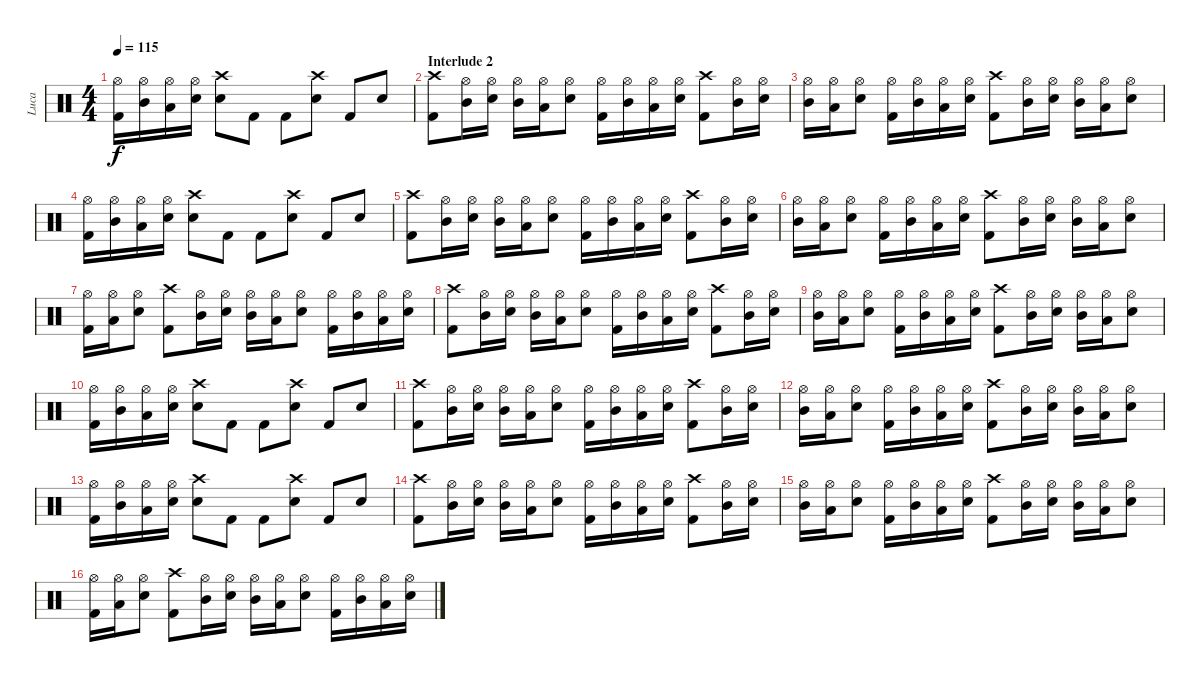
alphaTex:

\track ("Luca" "Luca") {instrument percussion}
\staff {score}
\articulation defaults
\ts (4 4)
\tempo 115
\clef neutral
\ks c
("Hi-Hat (open)" "Kick (hit) 2").16{dy f} ("Hi-Hat (open)" "Mid Tom (hit)").16 ("Hi-Hat (open)" "Low Floor Tom (hit)").16 ("Hi-Hat (open)" "Snare (hit) 2").16 ("Crash high (hit)" "Snare (hit) 2").8 "Kick (hit) 2".8 "Kick (hit) 2".8 ("Crash high (hit)" "Snare (hit) 2").8 "Kick (hit) 2".8 "Snare (hit) 2".8 |
\section ("" "Interlude 2")
("Crash high (hit)" "Kick (hit) 2").8 ("Hi-Hat (open)" "Mid Tom (hit)").16 ("Hi-Hat (open)" "Snare (hit) 2").16 ("Hi-Hat (open)" "Mid Tom (hit)").16 ("Hi-Hat (open)" "Low Floor Tom (hit)").16 ("Hi-Hat (open)" "Snare (hit) 2").8 ("Hi-Hat (open)" "Kick (hit) 2").16 ("Hi-Hat (open)" "Mid Tom (hit)").16 ("Hi-Hat (open)" "Low Floor Tom (hit)").16 ("Hi-Hat (open)" "Snare (hit) 2").16 ("Crash high (hit)" "Kick (hit) 2").8 ("Hi-Hat (open)" "Mid Tom (hit)").16 ("Hi-Hat (open)" "Snare (hit) 2").16 |
("Hi-Hat (open)" "Mid Tom (hit)").16 ("Hi-Hat (open)" "Low Floor Tom (hit)").16 ("Hi-Hat (open)" "Snare (hit) 2").8 ("Hi-Hat (open)" "Kick (hit) 2").16 ("Hi-Hat (open)" "Mid Tom (hit)").16 ("Hi-Hat (open)" "Low Floor Tom (hit)").16 ("Hi-Hat (open)" "Snare (hit) 2").16 ("Crash high (hit)" "Kick (hit) 2").8 ("Hi-Hat (open)" "Mid Tom (hit)").16 ("Hi-Hat (open)" "Snare (hit) 2").16 ("Hi-Hat (open)" "Mid Tom (hit)").16 ("Hi-Hat (open)" "Low Floor Tom (hit)").16 ("Hi-Hat (open)" "Snare (hit) 2").8 |
("Hi-Hat (open)" "Kick (hit) 2").16 ("Hi-Hat (open)" "Mid Tom (hit)").16 ("Hi-Hat (open)" "Low Floor Tom (hit)").16 ("Hi-Hat (open)" "Snare (hit) 2").16 ("Crash high (hit)" "Snare (hit) 2").8 "Kick (hit) 2".8 "Kick (hit) 2".8 ("Crash high (hit)" "Snare (hit) 2").8 "Kick (hit) 2".8 "Snare (hit) 2".8 |
("Crash high (hit)" "Kick (hit) 2").8 ("Hi-Hat (open)" "Mid Tom (hit)").16 ("Hi-Hat (open)" "Snare (hit) 2").16 ("Hi-Hat (open)" "Mid Tom (hit)").16 ("Hi-Hat (open)" "Low Floor Tom (hit)").16 ("Hi-Hat (open)" "Snare (hit) 2").8 ("Hi-Hat (open)" "Kick (hit) 2").16 ("Hi-Hat (open)" "Mid Tom (hit)").16 ("Hi-Hat (open)" "Low Floor Tom (hit)").16 ("Hi-Hat (open)" "Snare (hit) 2").16 ("Crash high (hit)" "Kick (hit) 2").8 ("Hi-Hat (open)" "Mid Tom (hit)").16 ("Hi-Hat (open)" "Snare (hit) 2").16 |
("Hi-Hat (open)" "Mid Tom (hit)").16 ("Hi-Hat (open)" "Low Floor Tom (hit)").16 ("Hi-Hat (open)" "Snare (hit) 2").8 ("Hi-Hat (open)" "Kick (hit) 2").16 ("Hi-Hat (open)" "Mid Tom (hit)").16 ("Hi-Hat (open)" "Low Floor Tom (hit)").16 ("Hi-Hat (open)" "Snare (hit) 2").16 ("Crash high (hit)" "Kick (hit) 2").8 ("Hi-Hat (open)" "Mid Tom (hit)").16 ("Hi-Hat (open)" "Snare (hit) 2").16 ("Hi-Hat (open)" "Mid Tom (hit)").16 ("Hi-Hat (open)" "Low Floor Tom (hit)").16 ("Hi-Hat (open)" "Snare (hit) 2").8 |
("Hi-Hat (open)" "Kick (hit) 2").16 ("Hi-Hat (open)" "Low Floor Tom (hit)").16 ("Hi-Hat (open)" "Snare (hit) 2").8 ("Crash high (hit)" "Kick (hit) 2").8 ("Hi-Hat (open)" "Mid Tom (hit)").16 ("Hi-Hat (open)" "Snare (hit) 2").16 ("Hi-Hat (open)" "Mid Tom (hit)").16 ("Hi-Hat (open)" "Low Floor Tom (hit)").16 ("Hi-Hat (open)" "Snare (hit) 2").8 ("Hi-Hat (open)" "Kick (hit) 2").16 ("Hi-Hat (open)" "Mid Tom (hit)").16 ("Hi-Hat (open)" "Low Floor Tom (hit)").16 ("Hi-Hat (open)" "Snare (hit) 2").16 |
("Crash high (hit)" "Kick (hit) 2").8 ("Hi-Hat (open)" "Mid Tom (hit)").16 ("Hi-Hat (open)" "Snare (hit) 2").16 ("Hi-Hat (open)" "Mid Tom (hit)").16 ("Hi-Hat (open)" "Low Floor Tom (hit)").16 ("Hi-Hat (open)" "Snare (hit) 2").8 ("Hi-Hat (open)" "Kick (hit) 2").16 ("Hi-Hat (open)" "Mid Tom (hit)").16 ("Hi-Hat (open)" "Low Floor Tom (hit)").16 ("Hi-Hat (open)" "Snare (hit) 2").16 ("Crash high (hit)" "Kick (hit) 2").8 ("Hi-Hat (open)" "Mid Tom (hit)").16 ("Hi-Hat (open)" "Snare (hit) 2").16 |
("Hi-Hat (open)" "Mid Tom (hit)").16 ("Hi-Hat (open)" "Low Floor Tom (hit)").16 ("Hi-Hat (open)" "Snare (hit) 2").8 ("Hi-Hat (open)" "Kick (hit) 2").16 ("Hi-Hat (open)" "Mid Tom (hit)").16 ("Hi-Hat (open)" "Low Floor Tom (hit)").16 ("Hi-Hat (open)" "Snare (hit) 2").16 ("Crash high (hit)" "Kick (hit) 2").8 ("Hi-Hat (open)" "Mid Tom (hit)").16 ("Hi-Hat (open)" "Snare (hit) 2").16 ("Hi-Hat (open)" "Mid Tom (hit)").16 ("Hi-Hat (open)" "Low Floor Tom (hit)").16 ("Hi-Hat (open)" "Snare (hit) 2").8 |
("Hi-Hat (open)" "Kick (hit) 2").16 ("Hi-Hat (open)" "Mid Tom (hit)").16 ("Hi-Hat (open)" "Low Floor Tom (hit)").16 ("Hi-Hat (open)" "Snare (hit) 2").16 ("Crash high (hit)" "Snare (hit) 2").8 "Kick (hit) 2".8 "Kick (hit) 2".8 ("Crash high (hit)" "Snare (hit) 2").8 "Kick (hit) 2".8 "Snare (hit) 2".8 |
("Crash high (hit)" "Kick (hit) 2").8 ("Hi-Hat (open)" "Mid Tom (hit)").16 ("Hi-Hat (open)" "Snare (hit) 2").16 ("Hi-Hat (open)" "Mid Tom (hit)").16 ("Hi-Hat (open)" "Low Floor Tom (hit)").16 ("Hi-Hat (open)" "Snare (hit) 2").8 ("Hi-Hat (open)" "Kick (hit) 2").16 ("Hi-Hat (open)" "Mid Tom (hit)").16 ("Hi-Hat (open)" "Low Floor Tom (hit)").16 ("Hi-Hat (open)" "Snare (hit) 2").16 ("Crash high (hit)" "Kick (hit) 2").8 ("Hi-Hat (open)" "Mid Tom (hit)").16 ("Hi-Hat (open)" "Snare (hit) 2").16 |
("Hi-Hat (open)" "Mid Tom (hit)").16 ("Hi-Hat (open)" "Low Floor Tom (hit)").16 ("Hi-Hat (open)" "Snare (hit) 2").8 ("Hi-Hat (open)" "Kick (hit) 2").16 ("Hi-Hat (open)" "Mid Tom (hit)").16 ("Hi-Hat (open)" "Low Floor Tom (hit)").16 ("Hi-Hat (open)" "Snare (hit) 2").16 ("Crash high (hit)" "Kick (hit) 2").8 ("Hi-Hat (open)" "Mid Tom (hit)").16 ("Hi-Hat (open)" "Snare (hit) 2").16 ("Hi-Hat (open)" "Mid Tom (hit)").16 ("Hi-Hat (open)" "Low Floor Tom (hit)").16 ("Hi-Hat (open)" "Snare (hit) 2").8 |
("Hi-Hat (open)" "Kick (hit) 2").16 ("Hi-Hat (open)" "Mid Tom (hit)").16 ("Hi-Hat (open)" "Low Floor Tom (hit)").16 ("Hi-Hat (open)" "Snare (hit) 2").16 ("Crash high (hit)" "Snare (hit) 2").8 "Kick (hit) 2".8 "Kick (hit) 2".8 ("Crash high (hit)" "Snare (hit) 2").8 "Kick (hit) 2".8 "Snare (hit) 2".8 |
("Crash high (hit)" "Kick (hit) 2").8 ("Hi-Hat (open)" "Mid Tom (hit)").16 ("Hi-Hat (open)" "Snare (hit) 2").16 ("Hi-Hat (open)" "Mid Tom (hit)").16 ("Hi-Hat (open)" "Low Floor Tom (hit)").16 ("Hi-Hat (open)" "Snare (hit) 2").8 ("Hi-Hat (open)" "Kick (hit) 2").16 ("Hi-Hat (open)" "Mid Tom (hit)").16 ("Hi-Hat (open)" "Low Floor Tom (hit)").16 ("Hi-Hat (open)" "Snare (hit) 2").16 ("Crash high (hit)" "Kick (hit) 2").8 ("Hi-Hat (open)" "Mid Tom (hit)").16 ("Hi-Hat (open)" "Snare (hit) 2").16 |
("Hi-Hat (open)" "Mid Tom (hit)").16 ("Hi-Hat (open)" "Low Floor Tom (hit)").16 ("Hi-Hat (open)" "Snare (hit) 2").8 ("Hi-Hat (open)" "Kick (hit) 2").16 ("Hi-Hat (open)" "Mid Tom (hit)").16 ("Hi-Hat (open)" "Low Floor Tom (hit)").16 ("Hi-Hat (open)" "Snare (hit) 2").16 ("Crash high (hit)" "Kick (hit) 2").8 ("Hi-Hat (open)" "Mid Tom (hit)").16 ("Hi-Hat (open)" "Snare (hit) 2").16 ("Hi-Hat (open)" "Mid Tom (hit)").16 ("Hi-Hat (open)" "Low Floor Tom (hit)").16 ("Hi-Hat (open)" "Snare (hit) 2").8 |
("Hi-Hat (open)" "Kick (hit) 2").16 ("Hi-Hat (open)" "Low Floor Tom (hit)").16 ("Hi-Hat (open)" "Snare (hit) 2").8 ("Crash high (hit)" "Kick (hit) 2").8 ("Hi-Hat (open)" "Mid Tom (hit)").16 ("Hi-Hat (open)" "Snare (hit) 2").16 ("Hi-Hat (open)" "Mid Tom (hit)").16 ("Hi-Hat (open)" "Low Floor Tom (hit)").16 ("Hi-Hat (open)" "Snare (hit) 2").8 ("Hi-Hat (open)" "Kick (hit) 2").16 ("Hi-Hat (open)" "Mid Tom (hit)").16 ("Hi-Hat (open)" "Low Floor Tom (hit)").16 ("Hi-Hat (open)" "Snare (hit) 2").16
